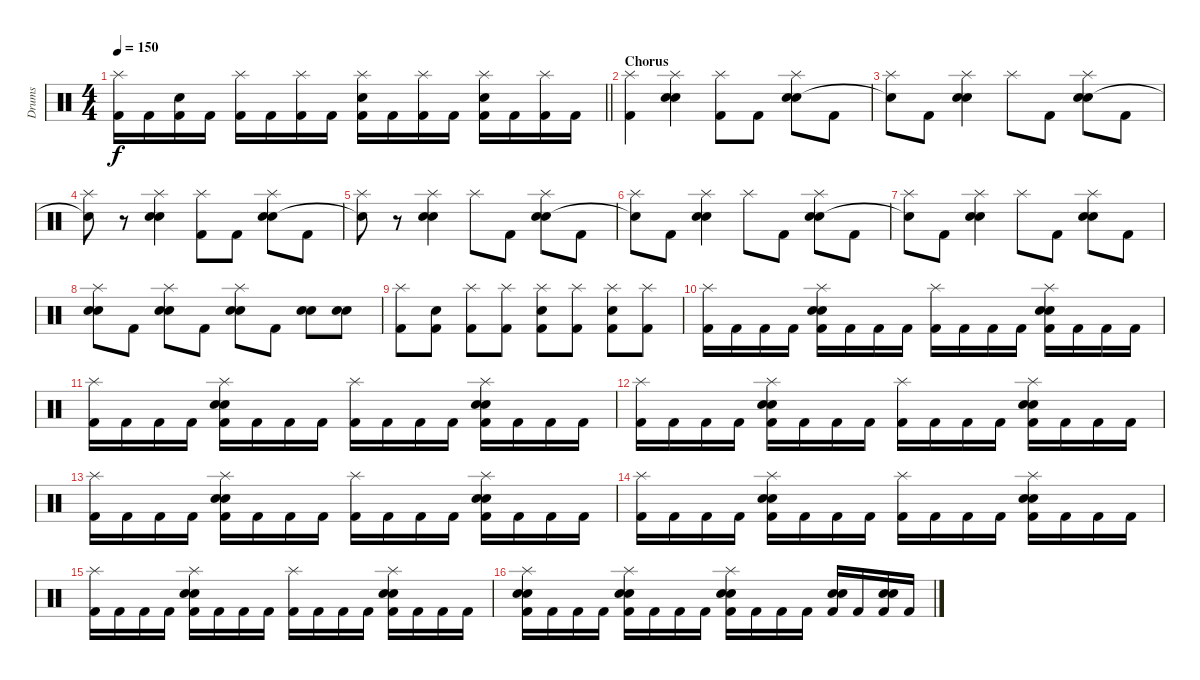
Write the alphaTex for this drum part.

\track ("Drums" "Drums") {instrument percussion}
\staff {score}
\articulation defaults
\ts (4 4)
\tempo 150
\clef neutral
\barLineRight lightlight
\ks c
("Splash (hit)" "Kick (hit) 2").16{dy f} "Kick (hit) 2".16 ("Electric Snare (hit)" "Kick (hit) 2").16 "Kick (hit) 2".16 ("Splash (hit)" "Kick (hit) 2").16 "Kick (hit) 2".16 ("Splash (hit)" "Kick (hit) 2").16 "Kick (hit) 2".16 ("Splash (hit)" "Electric Snare (hit)" "Kick (hit) 2").16 "Kick (hit) 2".16 ("Splash (hit)" "Kick (hit) 2").16 "Kick (hit) 2".16 ("Splash (hit)" "Electric Snare (hit)" "Kick (hit) 2").16 "Kick (hit) 2".16 ("Splash (hit)" "Kick (hit) 2").16 "Kick (hit) 2".16 |
\section ("" "Chorus")
("Splash (hit)" "Kick (hit) 2").4 ("Splash (hit)" "Electric Snare (hit)" "Snare (hit) 2").4 ("Splash (hit)" "Kick (hit) 2").8 "Kick (hit) 2".8 ("Splash (hit)" "Electric Snare (hit)" "Snare (hit) 2").8 "Kick (hit) 2".8 |
("Splash (hit)" "Snare (hit)"{t}).8 "Kick (hit) 2".8 ("Splash (hit)" "Electric Snare (hit)" "Snare (hit) 2").4 "Splash (hit)".8 "Kick (hit) 2".8 ("Splash (hit)" "Electric Snare (hit)" "Snare (hit) 2").8 "Kick (hit) 2".8 |
("Splash (hit)" "Snare (hit)"{t}).8 r.8 ("Splash (hit)" "Electric Snare (hit)" "Snare (hit) 2").4 ("Splash (hit)" "Kick (hit) 2").8 "Kick (hit) 2".8 ("Splash (hit)" "Electric Snare (hit)" "Snare (hit) 2").8 "Kick (hit) 2".8 |
("Splash (hit)" "Snare (hit)"{t}).8 r.8 ("Splash (hit)" "Electric Snare (hit)" "Snare (hit) 2").4 "Splash (hit)".8 "Kick (hit) 2".8 ("Splash (hit)" "Electric Snare (hit)" "Snare (hit) 2").8 "Kick (hit) 2".8 |
("Splash (hit)" "Snare (hit)"{t}).8 "Kick (hit) 2".8 ("Splash (hit)" "Electric Snare (hit)" "Snare (hit) 2").4 "Splash (hit)".8 "Kick (hit) 2".8 ("Splash (hit)" "Electric Snare (hit)" "Snare (hit) 2").8 "Kick (hit) 2".8 |
("Splash (hit)" "Snare (hit)"{t}).8 "Kick (hit) 2".8 ("Splash (hit)" "Electric Snare (hit)" "Snare (hit) 2").4 "Splash (hit)".8 "Kick (hit) 2".8 ("Splash (hit)" "Electric Snare (hit)" "Snare (hit) 2").8 "Kick (hit) 2".8 |
("Splash (hit)" "Electric Snare (hit)" "Snare (hit) 2").8 "Kick (hit) 2".8 ("Splash (hit)" "Electric Snare (hit)" "Snare (hit) 2").8 "Kick (hit) 2".8 ("Splash (hit)" "Electric Snare (hit)" "Snare (hit) 2").8 "Kick (hit) 2".8 ("Electric Snare (hit)" "Snare (hit) 2").8 ("Electric Snare (hit)" "Snare (hit) 2").8 |
("Splash (hit)" "Kick (hit) 2").8 ("Electric Snare (hit)" "Kick (hit) 2").8 ("Splash (hit)" "Kick (hit) 2").8 ("Splash (hit)" "Kick (hit) 2").8 ("Splash (hit)" "Electric Snare (hit)" "Kick (hit) 2").8 ("Splash (hit)" "Kick (hit) 2").8 ("Splash (hit)" "Electric Snare (hit)" "Kick (hit) 2").8 ("Splash (hit)" "Kick (hit) 2").8 |
("Splash (hit)" "Kick (hit) 2").16 "Kick (hit) 2".16 "Kick (hit) 2".16 "Kick (hit) 2".16 ("Splash (hit)" "Electric Snare (hit)" "Snare (hit) 2" "Kick (hit) 2").16 "Kick (hit) 2".16 "Kick (hit) 2".16 "Kick (hit) 2".16 ("Splash (hit)" "Kick (hit) 2").16 "Kick (hit) 2".16 "Kick (hit) 2".16 "Kick (hit) 2".16 ("Splash (hit)" "Electric Snare (hit)" "Snare (hit) 2" "Kick (hit) 2").16 "Kick (hit) 2".16 "Kick (hit) 2".16 "Kick (hit) 2".16 |
("Splash (hit)" "Kick (hit) 2").16 "Kick (hit) 2".16 "Kick (hit) 2".16 "Kick (hit) 2".16 ("Splash (hit)" "Electric Snare (hit)" "Snare (hit) 2" "Kick (hit) 2").16 "Kick (hit) 2".16 "Kick (hit) 2".16 "Kick (hit) 2".16 ("Splash (hit)" "Kick (hit) 2").16 "Kick (hit) 2".16 "Kick (hit) 2".16 "Kick (hit) 2".16 ("Splash (hit)" "Electric Snare (hit)" "Snare (hit) 2" "Kick (hit) 2").16 "Kick (hit) 2".16 "Kick (hit) 2".16 "Kick (hit) 2".16 |
("Splash (hit)" "Kick (hit) 2").16 "Kick (hit) 2".16 "Kick (hit) 2".16 "Kick (hit) 2".16 ("Splash (hit)" "Electric Snare (hit)" "Snare (hit) 2" "Kick (hit) 2").16 "Kick (hit) 2".16 "Kick (hit) 2".16 "Kick (hit) 2".16 ("Splash (hit)" "Kick (hit) 2").16 "Kick (hit) 2".16 "Kick (hit) 2".16 "Kick (hit) 2".16 ("Splash (hit)" "Electric Snare (hit)" "Snare (hit) 2" "Kick (hit) 2").16 "Kick (hit) 2".16 "Kick (hit) 2".16 "Kick (hit) 2".16 |
("Splash (hit)" "Kick (hit) 2").16 "Kick (hit) 2".16 "Kick (hit) 2".16 "Kick (hit) 2".16 ("Splash (hit)" "Electric Snare (hit)" "Snare (hit) 2" "Kick (hit) 2").16 "Kick (hit) 2".16 "Kick (hit) 2".16 "Kick (hit) 2".16 ("Splash (hit)" "Kick (hit) 2").16 "Kick (hit) 2".16 "Kick (hit) 2".16 "Kick (hit) 2".16 ("Splash (hit)" "Electric Snare (hit)" "Snare (hit) 2" "Kick (hit) 2").16 "Kick (hit) 2".16 "Kick (hit) 2".16 "Kick (hit) 2".16 |
("Splash (hit)" "Kick (hit) 2").16 "Kick (hit) 2".16 "Kick (hit) 2".16 "Kick (hit) 2".16 ("Splash (hit)" "Electric Snare (hit)" "Snare (hit) 2" "Kick (hit) 2").16 "Kick (hit) 2".16 "Kick (hit) 2".16 "Kick (hit) 2".16 ("Splash (hit)" "Kick (hit) 2").16 "Kick (hit) 2".16 "Kick (hit) 2".16 "Kick (hit) 2".16 ("Splash (hit)" "Electric Snare (hit)" "Snare (hit) 2" "Kick (hit) 2").16 "Kick (hit) 2".16 "Kick (hit) 2".16 "Kick (hit) 2".16 |
("Splash (hit)" "Kick (hit) 2").16 "Kick (hit) 2".16 "Kick (hit) 2".16 "Kick (hit) 2".16 ("Splash (hit)" "Electric Snare (hit)" "Snare (hit) 2" "Kick (hit) 2").16 "Kick (hit) 2".16 "Kick (hit) 2".16 "Kick (hit) 2".16 ("Splash (hit)" "Kick (hit) 2").16 "Kick (hit) 2".16 "Kick (hit) 2".16 "Kick (hit) 2".16 ("Splash (hit)" "Electric Snare (hit)" "Snare (hit) 2" "Kick (hit) 2").16 "Kick (hit) 2".16 "Kick (hit) 2".16 "Kick (hit) 2".16 |
("Splash (hit)" "Electric Snare (hit)" "Snare (hit) 2" "Kick (hit) 2").16 "Kick (hit) 2".16 "Kick (hit) 2".16 "Kick (hit) 2".16 ("Splash (hit)" "Electric Snare (hit)" "Snare (hit) 2" "Kick (hit) 2").16 "Kick (hit) 2".16 "Kick (hit) 2".16 "Kick (hit) 2".16 ("Splash (hit)" "Electric Snare (hit)" "Snare (hit) 2" "Kick (hit) 2").16 "Kick (hit) 2".16 "Kick (hit) 2".16 "Kick (hit) 2".16 ("Electric Snare (hit)" "Snare (hit) 2" "Kick (hit) 2").16 "Kick (hit) 2".16 ("Electric Snare (hit)" "Snare (hit) 2" "Kick (hit) 2").16 "Kick (hit) 2".16
